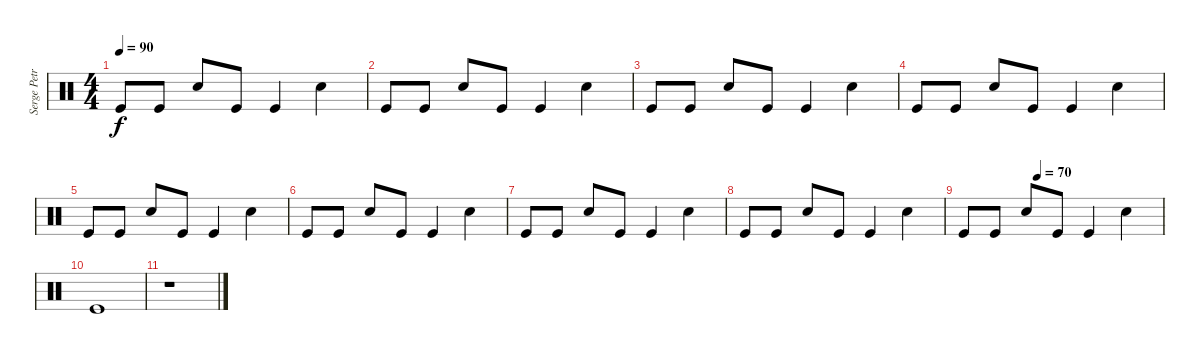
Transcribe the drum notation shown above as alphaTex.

\track ("Serge Petrone" "Serge Petr") {instrument percussion}
\staff {score}
\articulation defaults
\ts (4 4)
\tempo 90
\clef neutral
\ks c "Kick (hit)".8{dy f} "Kick (hit)".8 "Snare (hit) 2".8 "Kick (hit)".8 "Kick (hit)".4 "Snare (hit) 2".4
|
"Kick (hit)".8 "Kick (hit)".8 "Snare (hit) 2".8 "Kick (hit)".8 "Kick (hit)".4 "Snare (hit) 2".4 |
"Kick (hit)".8 "Kick (hit)".8 "Snare (hit) 2".8 "Kick (hit)".8 "Kick (hit)".4 "Snare (hit) 2".4 |
"Kick (hit)".8 "Kick (hit)".8 "Snare (hit) 2".8 "Kick (hit)".8 "Kick (hit)".4 "Snare (hit) 2".4 |
"Kick (hit)".8 "Kick (hit)".8 "Snare (hit) 2".8 "Kick (hit)".8 "Kick (hit)".4 "Snare (hit) 2".4 |
"Kick (hit)".8 "Kick (hit)".8 "Snare (hit) 2".8 "Kick (hit)".8 "Kick (hit)".4 "Snare (hit) 2".4 |
"Kick (hit)".8 "Kick (hit)".8 "Snare (hit) 2".8 "Kick (hit)".8 "Kick (hit)".4 "Snare (hit) 2".4 |
"Kick (hit)".8 "Kick (hit)".8 "Snare (hit) 2".8 "Kick (hit)".8 "Kick (hit)".4 "Snare (hit) 2".4 |
\tempo (70 0.375)
"Kick (hit)".8 "Kick (hit)".8 "Snare (hit) 2".8 "Kick (hit)".8 "Kick (hit)".4 "Snare (hit) 2".4 |
"Kick (hit)".1 |
r.1
